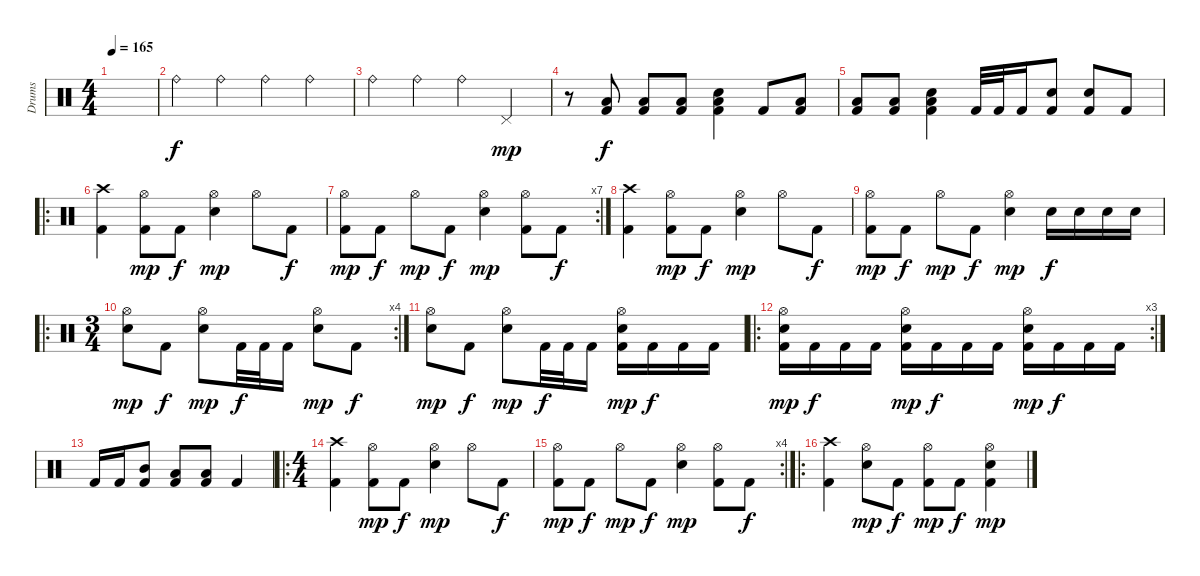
\track ("Drums" "Drums") {instrument percussion}
\staff {score}
\articulation defaults
\ts (4 4)
\tempo 165
\clef neutral
\ks c
|
"Ride (bell)".4{dy f} "Ride (bell)".4 "Ride (bell)".4 "Ride (bell)".4 |
"Ride (bell)".4 "Ride (bell)".4 "Ride (bell)".4 "Pedal Hi-Hat (hit)".4{dy mp} |
r.8 ("Low Tom (hit)" "Kick (hit) 2").8{dy f} ("Low Tom (hit)" "Kick (hit) 2").8 ("Low Tom (hit)" "Kick (hit) 2").8 ("Electric Snare (hit)" "Low Tom (hit)" "Kick (hit) 2").4 "Kick (hit) 2".8 ("Low Tom (hit)" "Kick (hit) 2").8 |
("Low Tom (hit)" "Kick (hit) 2").8 ("Low Tom (hit)" "Kick (hit) 2").8 ("Electric Snare (hit)" "Low Tom (hit)" "Kick (hit) 2").4 "Kick (hit) 2".32 "Kick (hit) 2".32 "Kick (hit) 2".16 ("Electric Snare (hit)" "Kick (hit) 2").8 ("Electric Snare (hit)" "Kick (hit) 2").8 "Kick (hit) 2".8 |
\ro
("Crash high (hit)" "Kick (hit) 2").4 ("Hi-Hat (open)" "Kick (hit) 2").8{dy mp} "Kick (hit) 2".8{dy f} ("Hi-Hat (open)" "Electric Snare (hit)").4{dy mp} "Hi-Hat (open)".8 "Kick (hit) 2".8{dy f} |
\rc 7
("Hi-Hat (open)" "Kick (hit) 2").8{dy mp} "Kick (hit) 2".8{dy f} "Hi-Hat (open)".8{dy mp} "Kick (hit) 2".8{dy f} ("Hi-Hat (open)" "Electric Snare (hit)").4{dy mp} ("Hi-Hat (open)" "Kick (hit) 2").8 "Kick (hit) 2".8{dy f} |
("Crash high (hit)" "Kick (hit) 2").4 ("Hi-Hat (open)" "Kick (hit) 2").8{dy mp} "Kick (hit) 2".8{dy f} ("Hi-Hat (open)" "Electric Snare (hit)").4{dy mp} "Hi-Hat (open)".8 "Kick (hit) 2".8{dy f} |
("Hi-Hat (open)" "Kick (hit) 2").8{dy mp} "Kick (hit) 2".8{dy f} "Hi-Hat (open)".8{dy mp} "Kick (hit) 2".8{dy f} ("Hi-Hat (open)" "Electric Snare (hit)").4{dy mp} "Electric Snare (hit)".16{dy f} "Electric Snare (hit)".16 "Electric Snare (hit)".16 "Electric Snare (hit)".16 |
\ro
\rc 4
\ts (3 4)
("Hi-Hat (open)" "Electric Snare (hit)").8{dy mp} "Kick (hit) 2".8{dy f} ("Hi-Hat (open)" "Electric Snare (hit)").8{dy mp} "Kick (hit) 2".32{dy f} "Kick (hit) 2".32 "Kick (hit) 2".16 ("Hi-Hat (open)" "Electric Snare (hit)").8{dy mp} "Kick (hit) 2".8{dy f} |
("Hi-Hat (open)" "Electric Snare (hit)").8{dy mp} "Kick (hit) 2".8{dy f} ("Hi-Hat (open)" "Electric Snare (hit)").8{dy mp} "Kick (hit) 2".32{dy f} "Kick (hit) 2".32 "Kick (hit) 2".16 ("Hi-Hat (open)" "Electric Snare (hit)" "Kick (hit) 2").16{dy mp} "Kick (hit) 2".16{dy f} "Kick (hit) 2".16 "Kick (hit) 2".16 |
\ro
\rc 3
("Hi-Hat (open)" "Electric Snare (hit)" "Kick (hit) 2").16{dy mp} "Kick (hit) 2".16{dy f} "Kick (hit) 2".16 "Kick (hit) 2".16 ("Hi-Hat (open)" "Electric Snare (hit)" "Kick (hit) 2").16{dy mp} "Kick (hit) 2".16{dy f} "Kick (hit) 2".16 "Kick (hit) 2".16 ("Hi-Hat (open)" "Electric Snare (hit)" "Kick (hit) 2").16{dy mp} "Kick (hit) 2".16{dy f} "Kick (hit) 2".16 "Kick (hit) 2".16 |
"Kick (hit) 2".16 "Kick (hit) 2".16 ("Mid Tom (hit)" "Kick (hit) 2").8 ("Low Tom (hit)" "Kick (hit) 2").8 ("Low Tom (hit)" "Kick (hit) 2").8 "Kick (hit) 2".4 |
\ro
\ts (4 4)
("Crash high (hit)" "Kick (hit) 2").4 ("Hi-Hat (open)" "Kick (hit) 2").8{dy mp} "Kick (hit) 2".8{dy f} ("Hi-Hat (open)" "Electric Snare (hit)").4{dy mp} "Hi-Hat (open)".8 "Kick (hit) 2".8{dy f} |
\rc 4
("Hi-Hat (open)" "Kick (hit) 2").8{dy mp} "Kick (hit) 2".8{dy f} "Hi-Hat (open)".8{dy mp} "Kick (hit) 2".8{dy f} ("Hi-Hat (open)" "Electric Snare (hit)").4{dy mp} ("Hi-Hat (open)" "Kick (hit) 2").8 "Kick (hit) 2".8{dy f} |
\ro
("Crash high (hit)" "Kick (hit) 2").4 ("Hi-Hat (open)" "Electric Snare (hit)").8{dy mp} "Kick (hit) 2".8{dy f} ("Hi-Hat (open)" "Kick (hit) 2").8{dy mp} "Kick (hit) 2".8{dy f} ("Hi-Hat (open)" "Electric Snare (hit)" "Kick (hit) 2").4{dy mp}
